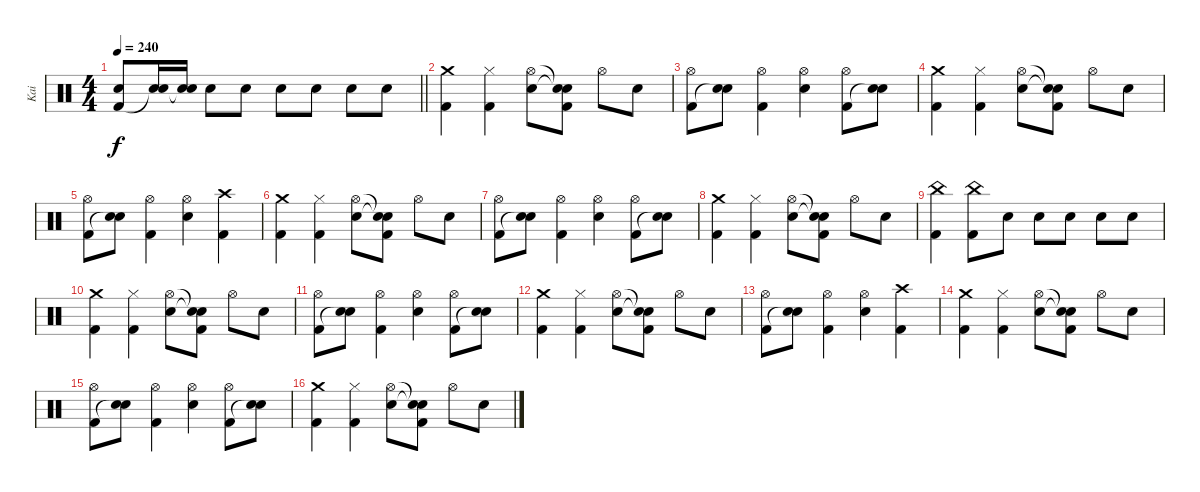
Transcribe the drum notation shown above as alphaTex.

\track ("Kai" "Kai") {instrument percussion}
\staff {score}
\articulation defaults
\ts (4 4)
\tempo 240
\clef neutral
\barLineRight lightlight
\ks c
("Snare (hit) 2" "Kick (hit) 2").8{dy f} ("Snare (hit) 2" "Snare (hit)"{t}).16 ("Snare (hit) 2" "Snare (hit)"{t}).16 "Snare (hit) 2".8 "Snare (hit) 2".8 "Snare (hit) 2".8 "Snare (hit) 2".8 "Snare (hit) 2".8 "Snare (hit) 2".8 |
\section ("" "")
("Crash medium (hit)" "Kick (hit) 2").4 ("Hi-Hat (closed)" "Kick (hit) 2").4 ("Hi-Hat (open)" "Snare (hit) 2").8 ("Snare (hit)"{t} "Snare (hit)"{t} "Kick (hit) 2").8 "Hi-Hat (open)".8 "Snare (hit) 2".8 |
("Hi-Hat (open)" "Kick (hit) 2").8 ("Snare (hit) 2" "Snare (hit)"{t}).8 ("Hi-Hat (open)" "Kick (hit) 2").4 ("Hi-Hat (open)" "Snare (hit) 2").4 ("Hi-Hat (open)" "Kick (hit) 2").8 ("Snare (hit) 2" "Snare (hit)"{t}).8 |
("Crash medium (hit)" "Kick (hit) 2").4 ("Hi-Hat (closed)" "Kick (hit) 2").4 ("Hi-Hat (open)" "Snare (hit) 2").8 ("Snare (hit)"{t} "Snare (hit)"{t} "Kick (hit) 2").8 "Hi-Hat (open)".8 "Snare (hit) 2".8 |
("Hi-Hat (open)" "Kick (hit) 2").8 ("Snare (hit) 2" "Snare (hit)"{t}).8 ("Hi-Hat (open)" "Kick (hit) 2").4 ("Hi-Hat (open)" "Snare (hit) 2").4 ("Crash high (hit)" "Kick (hit) 2").4 |
("Crash medium (hit)" "Kick (hit) 2").4 ("Hi-Hat (closed)" "Kick (hit) 2").4 ("Hi-Hat (open)" "Snare (hit) 2").8 ("Snare (hit)"{t} "Snare (hit)"{t} "Kick (hit) 2").8 "Hi-Hat (open)".8 "Snare (hit) 2".8 |
("Hi-Hat (open)" "Kick (hit) 2").8 ("Snare (hit) 2" "Snare (hit)"{t}).8 ("Hi-Hat (open)" "Kick (hit) 2").4 ("Hi-Hat (open)" "Snare (hit) 2").4 ("Hi-Hat (open)" "Kick (hit) 2").8 ("Snare (hit) 2" "Snare (hit)"{t}).8 |
("Crash medium (hit)" "Kick (hit) 2").4 ("Hi-Hat (closed)" "Kick (hit) 2").4 ("Hi-Hat (open)" "Snare (hit) 2").8 ("Snare (hit)"{t} "Snare (hit)"{t} "Kick (hit) 2").8 "Hi-Hat (open)".8 "Snare (hit) 2".8 |
("China (hit)" "Kick (hit) 2").4 ("China (hit)" "Kick (hit) 2").8 "Snare (hit) 2".8 "Snare (hit) 2".8 "Snare (hit) 2".8 "Snare (hit) 2".8 "Snare (hit) 2".8 |
("Crash medium (hit)" "Kick (hit) 2").4 ("Hi-Hat (closed)" "Kick (hit) 2").4 ("Hi-Hat (open)" "Snare (hit) 2").8 ("Snare (hit)"{t} "Snare (hit)"{t} "Kick (hit) 2").8 "Hi-Hat (open)".8 "Snare (hit) 2".8 |
("Hi-Hat (open)" "Kick (hit) 2").8 ("Snare (hit) 2" "Snare (hit)"{t}).8 ("Hi-Hat (open)" "Kick (hit) 2").4 ("Hi-Hat (open)" "Snare (hit) 2").4 ("Hi-Hat (open)" "Kick (hit) 2").8 ("Snare (hit) 2" "Snare (hit)"{t}).8 |
("Crash medium (hit)" "Kick (hit) 2").4 ("Hi-Hat (closed)" "Kick (hit) 2").4 ("Hi-Hat (open)" "Snare (hit) 2").8 ("Snare (hit)"{t} "Snare (hit)"{t} "Kick (hit) 2").8 "Hi-Hat (open)".8 "Snare (hit) 2".8 |
("Hi-Hat (open)" "Kick (hit) 2").8 ("Snare (hit) 2" "Snare (hit)"{t}).8 ("Hi-Hat (open)" "Kick (hit) 2").4 ("Hi-Hat (open)" "Snare (hit) 2").4 ("Crash high (hit)" "Kick (hit) 2").4 |
("Crash medium (hit)" "Kick (hit) 2").4 ("Hi-Hat (closed)" "Kick (hit) 2").4 ("Hi-Hat (open)" "Snare (hit) 2").8 ("Snare (hit)"{t} "Snare (hit)"{t} "Kick (hit) 2").8 "Hi-Hat (open)".8 "Snare (hit) 2".8 |
("Hi-Hat (open)" "Kick (hit) 2").8 ("Snare (hit) 2" "Snare (hit)"{t}).8 ("Hi-Hat (open)" "Kick (hit) 2").4 ("Hi-Hat (open)" "Snare (hit) 2").4 ("Hi-Hat (open)" "Kick (hit) 2").8 ("Snare (hit) 2" "Snare (hit)"{t}).8 |
("Crash medium (hit)" "Kick (hit) 2").4 ("Hi-Hat (closed)" "Kick (hit) 2").4 ("Hi-Hat (open)" "Snare (hit) 2").8 ("Snare (hit)"{t} "Snare (hit)"{t} "Kick (hit) 2").8 "Hi-Hat (open)".8 "Snare (hit) 2".8
